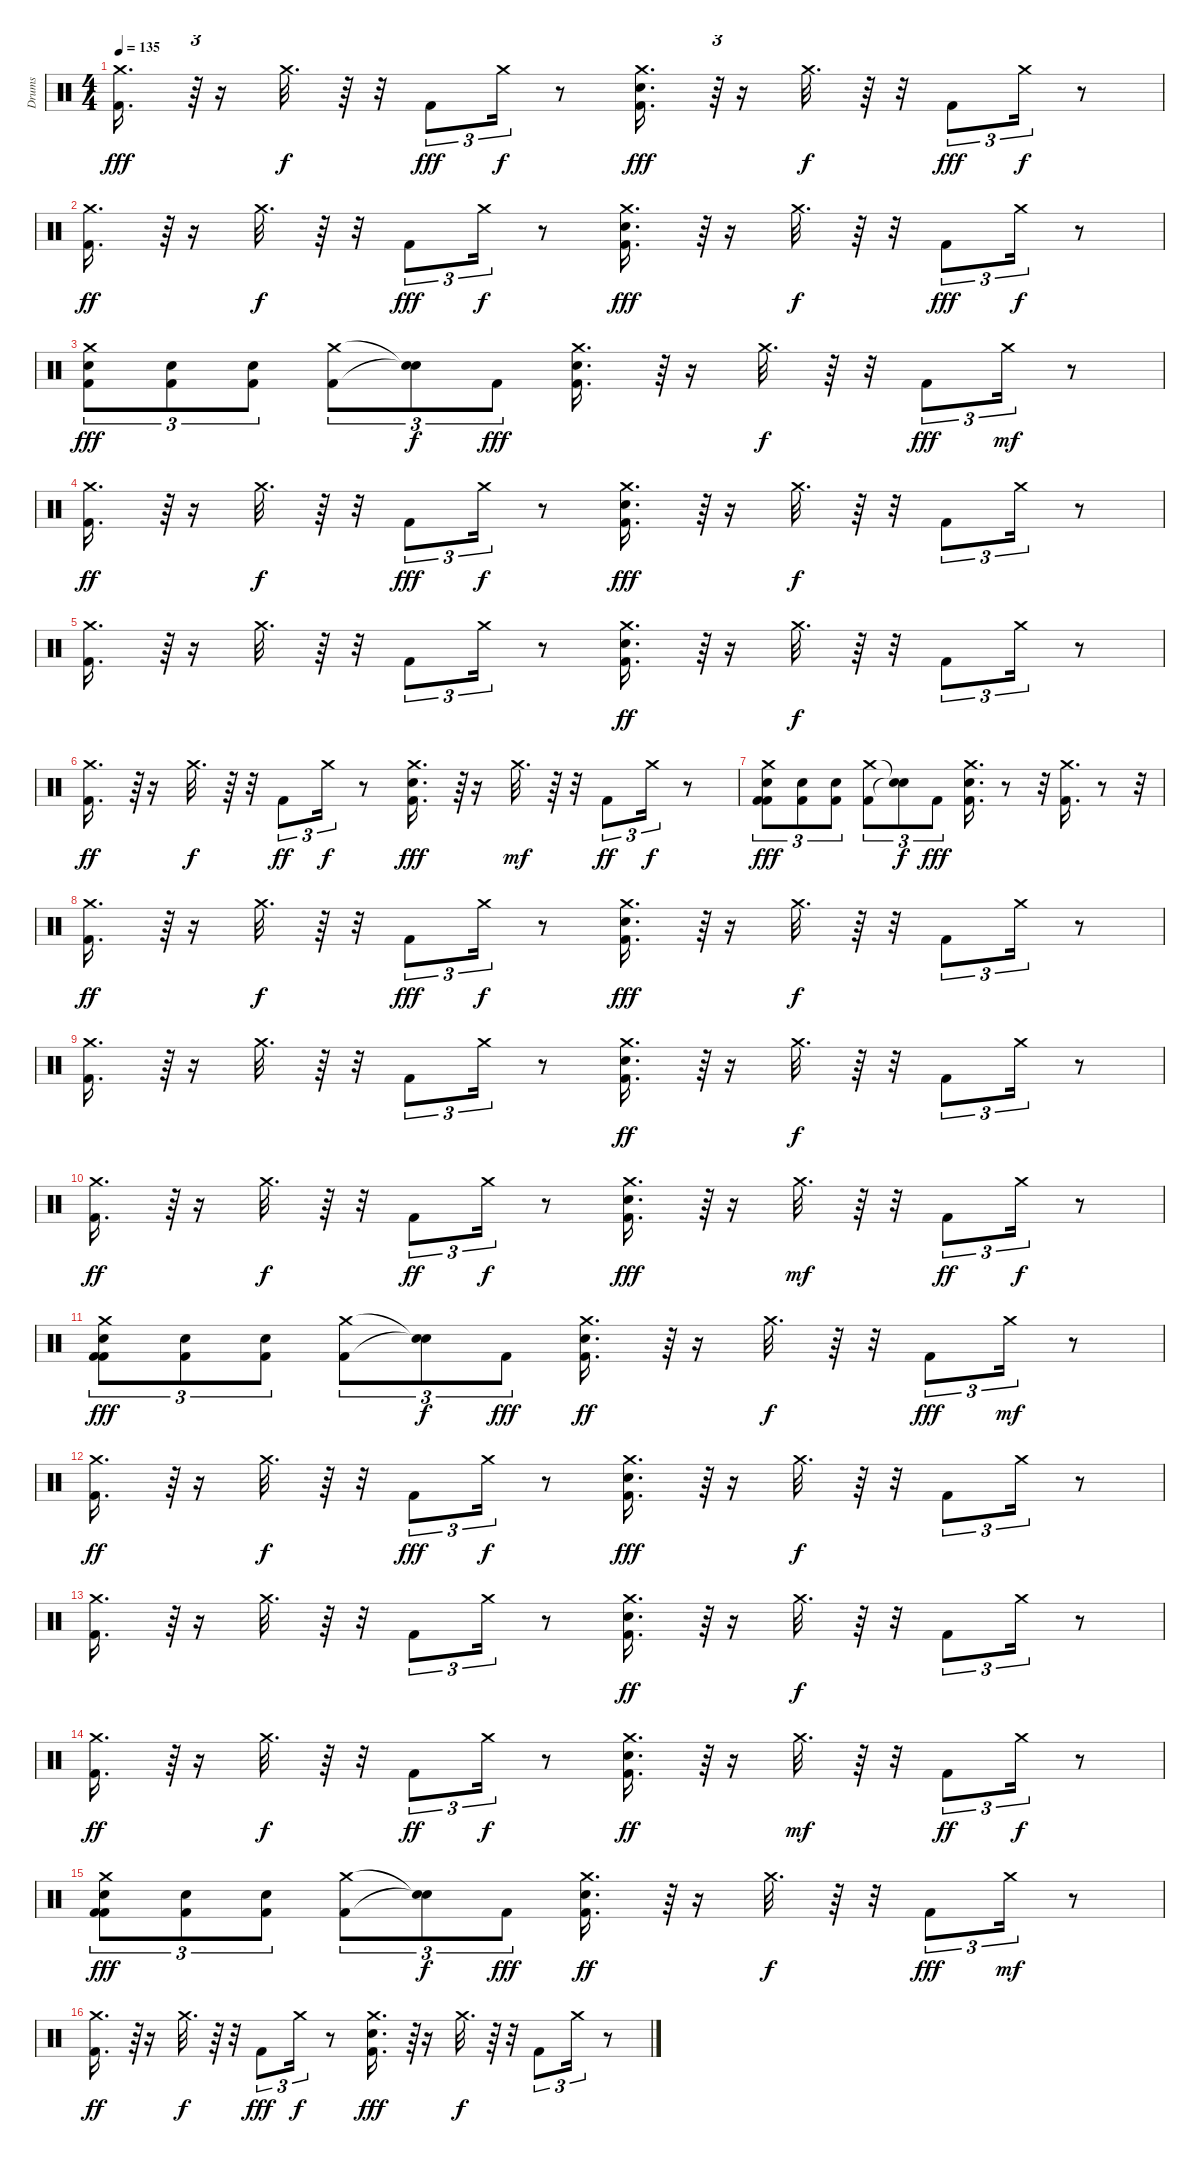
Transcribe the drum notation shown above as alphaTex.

\track ("Drums" "Drums") {instrument percussion}
\staff {score}
\articulation defaults
\ts (4 4)
\tempo 135
\clef neutral
\ks c
("Crash medium (hit)" "Kick (hit) 2").16{d dy fff} r.64{tu (3 2)} r.16 "Crash medium (hit)".32{d dy f} r.64 r.32 "Kick (hit) 2".8{tu (3 2) dy fff} "Crash medium (hit)".16{tu (3 2) dy f} r.8 ("Crash medium (hit)" "Kick (hit) 2" "Snare (hit) 2").16{d dy fff} r.64{tu (3 2)} r.16 "Crash medium (hit)".32{d dy f} r.64 r.32 "Kick (hit) 2".8{tu (3 2) dy fff} "Crash medium (hit)".16{tu (3 2) dy f} r.8 |
("Crash medium (hit)" "Kick (hit) 2").16{d dy ff} r.64{tu (3 2)} r.16 "Crash medium (hit)".32{d dy f} r.64 r.32 "Kick (hit) 2".8{tu (3 2) dy fff} "Crash medium (hit)".16{tu (3 2) dy f} r.8 ("Crash medium (hit)" "Kick (hit) 2" "Snare (hit) 2").16{d dy fff} r.64{tu (3 2)} r.16 "Crash medium (hit)".32{d dy f} r.64 r.32 "Kick (hit) 2".8{tu (3 2) dy fff} "Crash medium (hit)".16{tu (3 2) dy f} r.8 |
("Crash medium (hit)" "Snare (hit) 2" "Kick (hit) 2").8{tu (3 2) dy fff} ("Kick (hit) 2" "Snare (hit) 2").8{tu (3 2)} ("Kick (hit) 2" "Snare (hit) 2").8{tu (3 2)} ("Crash medium (hit)" "Kick (hit) 2").8{tu (3 2)} ("Snare (hit)"{t} "Snare (hit)"{t}).8{tu (3 2) dy f} "Kick (hit) 2".8{tu (3 2) dy fff} ("Crash medium (hit)" "Snare (hit) 2" "Kick (hit) 2").16{d} r.64{tu (3 2)} r.16 "Crash medium (hit)".32{d dy f} r.64 r.32 "Kick (hit) 2".8{tu (3 2) dy fff} "Crash medium (hit)".16{tu (3 2) dy mf} r.8 |
("Crash medium (hit)" "Kick (hit) 2").16{d dy ff} r.64{tu (3 2)} r.16 "Crash medium (hit)".32{d dy f} r.64 r.32 "Kick (hit) 2".8{tu (3 2) dy fff} "Crash medium (hit)".16{tu (3 2) dy f} r.8 ("Crash medium (hit)" "Kick (hit) 2" "Snare (hit) 2").16{d dy fff} r.64{tu (3 2)} r.16 "Crash medium (hit)".32{d dy f} r.64 r.32 "Kick (hit) 2".8{tu (3 2)} "Crash medium (hit)".16{tu (3 2)} r.8 |
("Crash medium (hit)" "Kick (hit) 2").16{d} r.64{tu (3 2)} r.16 "Crash medium (hit)".32{d} r.64 r.32 "Kick (hit) 2".8{tu (3 2)} "Crash medium (hit)".16{tu (3 2)} r.8 ("Crash medium (hit)" "Kick (hit) 2" "Snare (hit) 2").16{d dy ff} r.64{tu (3 2)} r.16 "Crash medium (hit)".32{d dy f} r.64 r.32 "Kick (hit) 2".8{tu (3 2)} "Crash medium (hit)".16{tu (3 2)} r.8 |
("Crash medium (hit)" "Kick (hit) 2").16{d dy ff} r.64{tu (3 2)} r.16 "Crash medium (hit)".32{d dy f} r.64 r.32 "Kick (hit) 2".8{tu (3 2) dy ff} "Crash medium (hit)".16{tu (3 2) dy f} r.8 ("Crash medium (hit)" "Snare (hit) 2" "Kick (hit) 2").16{d dy fff} r.64{tu (3 2)} r.16 "Crash medium (hit)".32{d dy mf} r.64 r.32 "Kick (hit) 2".8{tu (3 2) dy ff} "Crash medium (hit)".16{tu (3 2) dy f} r.8 |
("Crash medium (hit)" "Kick (hit) 2" "Snare (hit) 2" "Kick (hit) 2").8{tu (3 2) dy fff} ("Kick (hit) 2" "Snare (hit) 2").8{tu (3 2)} ("Snare (hit) 2" "Kick (hit) 2").8{tu (3 2)} ("Crash medium (hit)" "Kick (hit) 2").8{tu (3 2)} ("Snare (hit)"{t} "Snare (hit)"{t}).8{tu (3 2) dy f} "Kick (hit) 2".8{tu (3 2) dy fff} ("Snare (hit) 2" "Kick (hit) 2" "Crash medium (hit)").16{d} r.8 r.32 ("Crash medium (hit)" "Kick (hit) 2").16{d} r.8 r.32 |
("Crash medium (hit)" "Kick (hit) 2").16{d dy ff} r.64{tu (3 2)} r.16 "Crash medium (hit)".32{d dy f} r.64 r.32 "Kick (hit) 2".8{tu (3 2) dy fff} "Crash medium (hit)".16{tu (3 2) dy f} r.8 ("Crash medium (hit)" "Kick (hit) 2" "Snare (hit) 2").16{d dy fff} r.64{tu (3 2)} r.16 "Crash medium (hit)".32{d dy f} r.64 r.32 "Kick (hit) 2".8{tu (3 2)} "Crash medium (hit)".16{tu (3 2)} r.8 |
("Crash medium (hit)" "Kick (hit) 2").16{d} r.64{tu (3 2)} r.16 "Crash medium (hit)".32{d} r.64 r.32 "Kick (hit) 2".8{tu (3 2)} "Crash medium (hit)".16{tu (3 2)} r.8 ("Crash medium (hit)" "Snare (hit) 2" "Kick (hit) 2").16{d dy ff} r.64{tu (3 2)} r.16 "Crash medium (hit)".32{d dy f} r.64 r.32 "Kick (hit) 2".8{tu (3 2)} "Crash medium (hit)".16{tu (3 2)} r.8 |
("Crash medium (hit)" "Kick (hit) 2").16{d dy ff} r.64{tu (3 2)} r.16 "Crash medium (hit)".32{d dy f} r.64 r.32 "Kick (hit) 2".8{tu (3 2) dy ff} "Crash medium (hit)".16{tu (3 2) dy f} r.8 ("Crash medium (hit)" "Snare (hit) 2" "Kick (hit) 2").16{d dy fff} r.64{tu (3 2)} r.16 "Crash medium (hit)".32{d dy mf} r.64 r.32 "Kick (hit) 2".8{tu (3 2) dy ff} "Crash medium (hit)".16{tu (3 2) dy f} r.8 |
("Crash medium (hit)" "Kick (hit) 2" "Snare (hit) 2" "Kick (hit) 2").8{tu (3 2) dy fff} ("Kick (hit) 2" "Snare (hit) 2").8{tu (3 2)} ("Kick (hit) 2" "Snare (hit) 2").8{tu (3 2)} ("Crash medium (hit)" "Kick (hit) 2").8{tu (3 2)} ("Snare (hit)"{t} "Snare (hit)"{t}).8{tu (3 2) dy f} "Kick (hit) 2".8{tu (3 2) dy fff} ("Crash medium (hit)" "Kick (hit) 2" "Snare (hit) 2").16{d dy ff} r.64{tu (3 2)} r.16 "Crash medium (hit)".32{d dy f} r.64 r.32 "Kick (hit) 2".8{tu (3 2) dy fff} "Crash medium (hit)".16{tu (3 2) dy mf} r.8 |
("Crash medium (hit)" "Kick (hit) 2").16{d dy ff} r.64{tu (3 2)} r.16 "Crash medium (hit)".32{d dy f} r.64 r.32 "Kick (hit) 2".8{tu (3 2) dy fff} "Crash medium (hit)".16{tu (3 2) dy f} r.8 ("Crash medium (hit)" "Kick (hit) 2" "Snare (hit) 2").16{d dy fff} r.64{tu (3 2)} r.16 "Crash medium (hit)".32{d dy f} r.64 r.32 "Kick (hit) 2".8{tu (3 2)} "Crash medium (hit)".16{tu (3 2)} r.8 |
("Crash medium (hit)" "Kick (hit) 2").16{d} r.64{tu (3 2)} r.16 "Crash medium (hit)".32{d} r.64 r.32 "Kick (hit) 2".8{tu (3 2)} "Crash medium (hit)".16{tu (3 2)} r.8 ("Crash medium (hit)" "Kick (hit) 2" "Snare (hit) 2").16{d dy ff} r.64{tu (3 2)} r.16 "Crash medium (hit)".32{d dy f} r.64 r.32 "Kick (hit) 2".8{tu (3 2)} "Crash medium (hit)".16{tu (3 2)} r.8 |
("Crash medium (hit)" "Kick (hit) 2").16{d dy ff} r.64{tu (3 2)} r.16 "Crash medium (hit)".32{d dy f} r.64 r.32 "Kick (hit) 2".8{tu (3 2) dy ff} "Crash medium (hit)".16{tu (3 2) dy f} r.8 ("Crash medium (hit)" "Kick (hit) 2" "Snare (hit) 2").16{d dy ff} r.64{tu (3 2)} r.16 "Crash medium (hit)".32{d dy mf} r.64 r.32 "Kick (hit) 2".8{tu (3 2) dy ff} "Crash medium (hit)".16{tu (3 2) dy f} r.8 |
("Crash medium (hit)" "Kick (hit) 2" "Snare (hit) 2" "Kick (hit) 2").8{tu (3 2) dy fff} ("Kick (hit) 2" "Snare (hit) 2").8{tu (3 2)} ("Kick (hit) 2" "Snare (hit) 2").8{tu (3 2)} ("Crash medium (hit)" "Kick (hit) 2").8{tu (3 2)} ("Snare (hit)"{t} "Snare (hit)"{t}).8{tu (3 2) dy f} "Kick (hit) 2".8{tu (3 2) dy fff} ("Crash medium (hit)" "Kick (hit) 2" "Snare (hit) 2").16{d dy ff} r.64{tu (3 2)} r.16 "Crash medium (hit)".32{d dy f} r.64 r.32 "Kick (hit) 2".8{tu (3 2) dy fff} "Crash medium (hit)".16{tu (3 2) dy mf} r.8 |
("Crash medium (hit)" "Kick (hit) 2").16{d dy ff} r.64{tu (3 2)} r.16 "Crash medium (hit)".32{d dy f} r.64 r.32 "Kick (hit) 2".8{tu (3 2) dy fff} "Crash medium (hit)".16{tu (3 2) dy f} r.8 ("Crash medium (hit)" "Kick (hit) 2" "Snare (hit) 2").16{d dy fff} r.64{tu (3 2)} r.16 "Crash medium (hit)".32{d dy f} r.64 r.32 "Kick (hit) 2".8{tu (3 2)} "Crash medium (hit)".16{tu (3 2)} r.8
